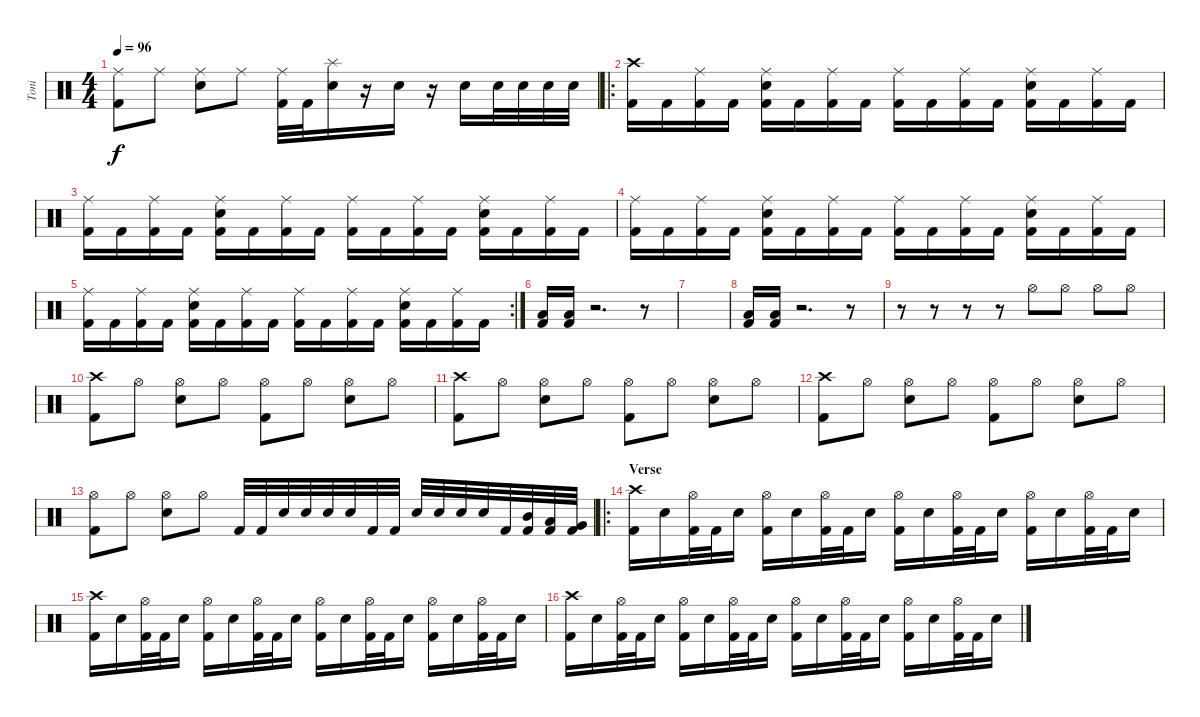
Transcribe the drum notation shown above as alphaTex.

\track ("Toni" "Toni") {instrument percussion}
\staff {score}
\articulation defaults
\ts (4 4)
\tempo 96
\clef neutral
\ks c
("Ride (middle)" "Kick (hit) 2").8{dy f} "Ride (middle)".8 ("Ride (middle)" "Electric Snare (hit)").8 "Ride (middle)".8 ("Ride (middle)" "Kick (hit) 2").32 "Kick (hit) 2".32 ("Splash (hit)" "Electric Snare (hit)").16 r.16 "Electric Snare (hit)".16 r.16 "Electric Snare (hit)".16 "Electric Snare (hit)".32 "Electric Snare (hit)".32 "Electric Snare (hit)".32 "Electric Snare (hit)".32 |
\ro
("Crash high (hit)" "Kick (hit) 2").16 "Kick (hit) 2".16 ("Ride (middle)" "Kick (hit) 2").16 "Kick (hit) 2".16 ("Ride (middle)" "Electric Snare (hit)" "Kick (hit) 2").16 "Kick (hit) 2".16 ("Ride (middle)" "Kick (hit) 2").16 "Kick (hit) 2".16 ("Ride (middle)" "Kick (hit) 2").16 "Kick (hit) 2".16 ("Ride (middle)" "Kick (hit) 2").16 "Kick (hit) 2".16 ("Ride (middle)" "Electric Snare (hit)" "Kick (hit) 2").16 "Kick (hit) 2".16 ("Ride (middle)" "Kick (hit) 2").16 "Kick (hit) 2".16 |
("Ride (middle)" "Kick (hit) 2").16 "Kick (hit) 2".16 ("Ride (middle)" "Kick (hit) 2").16 "Kick (hit) 2".16 ("Ride (middle)" "Electric Snare (hit)" "Kick (hit) 2").16 "Kick (hit) 2".16 ("Ride (middle)" "Kick (hit) 2").16 "Kick (hit) 2".16 ("Ride (middle)" "Kick (hit) 2").16 "Kick (hit) 2".16 ("Ride (middle)" "Kick (hit) 2").16 "Kick (hit) 2".16 ("Ride (middle)" "Electric Snare (hit)" "Kick (hit) 2").16 "Kick (hit) 2".16 ("Ride (middle)" "Kick (hit) 2").16 "Kick (hit) 2".16 |
("Ride (middle)" "Kick (hit) 2").16 "Kick (hit) 2".16 ("Ride (middle)" "Kick (hit) 2").16 "Kick (hit) 2".16 ("Ride (middle)" "Electric Snare (hit)" "Kick (hit) 2").16 "Kick (hit) 2".16 ("Ride (middle)" "Kick (hit) 2").16 "Kick (hit) 2".16 ("Ride (middle)" "Kick (hit) 2").16 "Kick (hit) 2".16 ("Ride (middle)" "Kick (hit) 2").16 "Kick (hit) 2".16 ("Ride (middle)" "Electric Snare (hit)" "Kick (hit) 2").16 "Kick (hit) 2".16 ("Ride (middle)" "Kick (hit) 2").16 "Kick (hit) 2".16 |
\rc 2
("Ride (middle)" "Kick (hit) 2").16 "Kick (hit) 2".16 ("Ride (middle)" "Kick (hit) 2").16 "Kick (hit) 2".16 ("Ride (middle)" "Electric Snare (hit)" "Kick (hit) 2").16 "Kick (hit) 2".16 ("Ride (middle)" "Kick (hit) 2").16 "Kick (hit) 2".16 ("Ride (middle)" "Kick (hit) 2").16 "Kick (hit) 2".16 ("Ride (middle)" "Kick (hit) 2").16 "Kick (hit) 2".16 ("Ride (middle)" "Electric Snare (hit)" "Kick (hit) 2").16 "Kick (hit) 2".16 ("Ride (middle)" "Kick (hit) 2").16 "Kick (hit) 2".16 |
("Low Tom (hit)" "Kick (hit) 2").16 ("Low Tom (hit)" "Kick (hit) 2").16 r.2{d} r.8 |
|
("Low Tom (hit)" "Kick (hit) 2").16 ("Low Tom (hit)" "Kick (hit) 2").16 r.2{d} r.8 |
r.8 r.8 r.8 r.8 "Hi-Hat (open)".8 "Hi-Hat (open)".8 "Hi-Hat (open)".8 "Hi-Hat (open)".8 |
("Crash high (hit)" "Kick (hit) 2").8 "Hi-Hat (open)".8 ("Hi-Hat (open)" "Electric Snare (hit)").8 "Hi-Hat (open)".8 ("Hi-Hat (open)" "Kick (hit) 2").8 "Hi-Hat (open)".8 ("Hi-Hat (open)" "Electric Snare (hit)").8 "Hi-Hat (open)".8 |
("Crash high (hit)" "Kick (hit) 2").8 "Hi-Hat (open)".8 ("Hi-Hat (open)" "Electric Snare (hit)").8 "Hi-Hat (open)".8 ("Hi-Hat (open)" "Kick (hit) 2").8 "Hi-Hat (open)".8 ("Hi-Hat (open)" "Electric Snare (hit)").8 "Hi-Hat (open)".8 |
("Crash high (hit)" "Kick (hit) 2").8 "Hi-Hat (open)".8 ("Hi-Hat (open)" "Electric Snare (hit)").8 "Hi-Hat (open)".8 ("Hi-Hat (open)" "Kick (hit) 2").8 "Hi-Hat (open)".8 ("Hi-Hat (open)" "Electric Snare (hit)").8 "Hi-Hat (open)".8 |
("Hi-Hat (open)" "Kick (hit) 2").8 "Hi-Hat (open)".8 ("Hi-Hat (open)" "Electric Snare (hit)").8 "Hi-Hat (open)".8 "Kick (hit) 2".32 "Kick (hit) 2".32 "Electric Snare (hit)".32 "Electric Snare (hit)".32 "Electric Snare (hit)".32 "Electric Snare (hit)".32 "Kick (hit) 2".32 "Kick (hit) 2".32 "Electric Snare (hit)".32 "Electric Snare (hit)".32 "Electric Snare (hit)".32 "Electric Snare (hit)".32 "Kick (hit) 2".32 ("Mid Tom (hit)" "Kick (hit) 2").32 ("Low Tom (hit)" "Kick (hit) 2").32 ("Very Low Tom (hit)" "Kick (hit) 2").32 |
\ro
\section ("" "Verse")
("Crash high (hit)" "Kick (hit) 2").16 "Electric Snare (hit)".16 ("Hi-Hat (open)" "Kick (hit) 2").32 "Kick (hit) 2".32 "Electric Snare (hit)".16 ("Hi-Hat (open)" "Kick (hit) 2").16 "Electric Snare (hit)".16 ("Hi-Hat (open)" "Kick (hit) 2").32 "Kick (hit) 2".32 "Electric Snare (hit)".16 ("Hi-Hat (open)" "Kick (hit) 2").16 "Electric Snare (hit)".16 ("Hi-Hat (open)" "Kick (hit) 2").32 "Kick (hit) 2".32 "Electric Snare (hit)".16 ("Hi-Hat (open)" "Kick (hit) 2").16 "Electric Snare (hit)".16 ("Hi-Hat (open)" "Kick (hit) 2").32 "Kick (hit) 2".32 "Electric Snare (hit)".16 |
("Crash high (hit)" "Kick (hit) 2").16 "Electric Snare (hit)".16 ("Hi-Hat (open)" "Kick (hit) 2").32 "Kick (hit) 2".32 "Electric Snare (hit)".16 ("Hi-Hat (open)" "Kick (hit) 2").16 "Electric Snare (hit)".16 ("Hi-Hat (open)" "Kick (hit) 2").32 "Kick (hit) 2".32 "Electric Snare (hit)".16 ("Hi-Hat (open)" "Kick (hit) 2").16 "Electric Snare (hit)".16 ("Hi-Hat (open)" "Kick (hit) 2").32 "Kick (hit) 2".32 "Electric Snare (hit)".16 ("Hi-Hat (open)" "Kick (hit) 2").16 "Electric Snare (hit)".16 ("Hi-Hat (open)" "Kick (hit) 2").32 "Kick (hit) 2".32 "Electric Snare (hit)".16 |
("Crash high (hit)" "Kick (hit) 2").16 "Electric Snare (hit)".16 ("Hi-Hat (open)" "Kick (hit) 2").32 "Kick (hit) 2".32 "Electric Snare (hit)".16 ("Hi-Hat (open)" "Kick (hit) 2").16 "Electric Snare (hit)".16 ("Hi-Hat (open)" "Kick (hit) 2").32 "Kick (hit) 2".32 "Electric Snare (hit)".16 ("Hi-Hat (open)" "Kick (hit) 2").16 "Electric Snare (hit)".16 ("Hi-Hat (open)" "Kick (hit) 2").32 "Kick (hit) 2".32 "Electric Snare (hit)".16 ("Hi-Hat (open)" "Kick (hit) 2").16 "Electric Snare (hit)".16 ("Hi-Hat (open)" "Kick (hit) 2").32 "Kick (hit) 2".32 "Electric Snare (hit)".16
